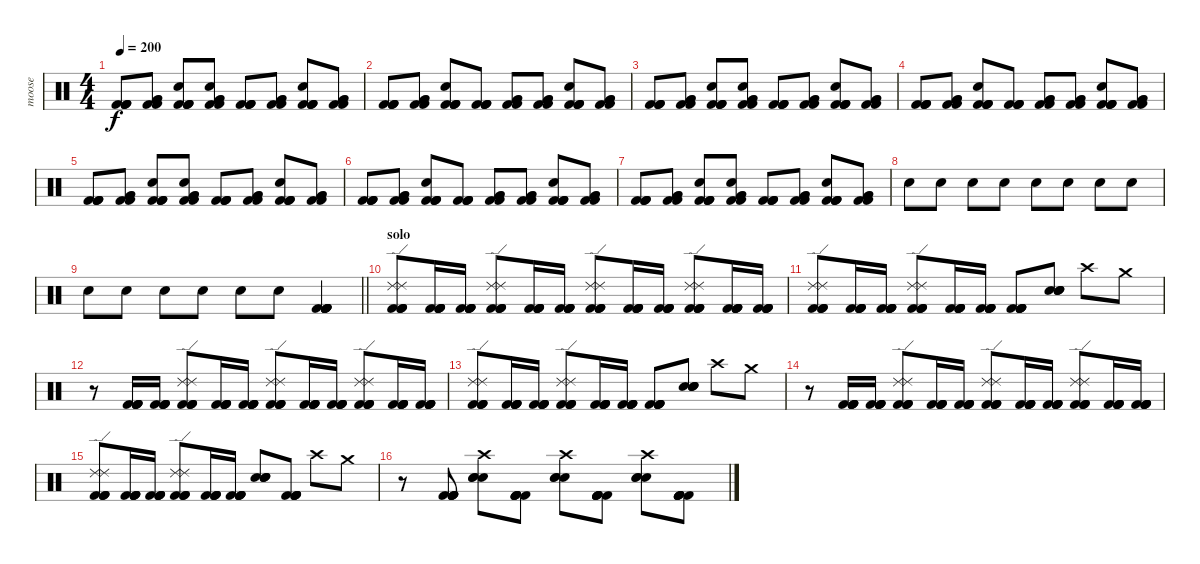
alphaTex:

\track ("moose" "moose") {instrument percussion}
\staff {score}
\articulation defaults
\ts (4 4)
\tempo 200
\clef neutral
\ks c
("Kick (hit) 2" "Kick (hit) 2" "Kick (hit) 2" "Kick (hit) 2").8{dy f} ("Kick (hit) 2" "Kick (hit) 2" "Very Low Tom (hit)" "Very Low Tom (hit)").8 ("Kick (hit) 2" "Kick (hit) 2" "Kick (hit) 2" "Kick (hit) 2" "Hand Clap (hit)").8 ("Kick (hit) 2" "Kick (hit) 2" "Very Low Tom (hit)" "Very Low Tom (hit)" "Hand Clap (hit)").8 ("Kick (hit) 2" "Kick (hit) 2" "Kick (hit) 2" "Kick (hit) 2").8 ("Kick (hit) 2" "Kick (hit) 2" "Very Low Tom (hit)" "Very Low Tom (hit)").8 ("Kick (hit) 2" "Kick (hit) 2" "Kick (hit) 2" "Kick (hit) 2" "Hand Clap (hit)").8 ("Kick (hit) 2" "Kick (hit) 2" "Very Low Tom (hit)" "Very Low Tom (hit)").8 |
("Kick (hit) 2" "Kick (hit) 2" "Kick (hit) 2" "Kick (hit) 2").8 ("Kick (hit) 2" "Kick (hit) 2" "Very Low Tom (hit)" "Very Low Tom (hit)").8 ("Kick (hit) 2" "Kick (hit) 2" "Kick (hit) 2" "Kick (hit) 2" "Hand Clap (hit)").8 ("Kick (hit) 2" "Kick (hit) 2" "Kick (hit) 2" "Kick (hit) 2").8 ("Kick (hit) 2" "Kick (hit) 2" "Very Low Tom (hit)" "Very Low Tom (hit)").8 ("Kick (hit) 2" "Kick (hit) 2" "Very Low Tom (hit)" "Very Low Tom (hit)").8 ("Kick (hit) 2" "Kick (hit) 2" "Kick (hit) 2" "Kick (hit) 2" "Hand Clap (hit)").8 ("Kick (hit) 2" "Kick (hit) 2" "Very Low Tom (hit)" "Very Low Tom (hit)").8 |
("Kick (hit) 2" "Kick (hit) 2" "Kick (hit) 2" "Kick (hit) 2").8 ("Kick (hit) 2" "Kick (hit) 2" "Very Low Tom (hit)" "Very Low Tom (hit)").8 ("Kick (hit) 2" "Kick (hit) 2" "Kick (hit) 2" "Kick (hit) 2" "Hand Clap (hit)").8 ("Kick (hit) 2" "Kick (hit) 2" "Very Low Tom (hit)" "Very Low Tom (hit)" "Hand Clap (hit)").8 ("Kick (hit) 2" "Kick (hit) 2" "Kick (hit) 2" "Kick (hit) 2").8 ("Kick (hit) 2" "Kick (hit) 2" "Very Low Tom (hit)" "Very Low Tom (hit)").8 ("Kick (hit) 2" "Kick (hit) 2" "Kick (hit) 2" "Kick (hit) 2" "Hand Clap (hit)").8 ("Kick (hit) 2" "Kick (hit) 2" "Very Low Tom (hit)" "Very Low Tom (hit)").8 |
("Kick (hit) 2" "Kick (hit) 2" "Kick (hit) 2" "Kick (hit) 2").8 ("Kick (hit) 2" "Kick (hit) 2" "Very Low Tom (hit)" "Very Low Tom (hit)").8 ("Kick (hit) 2" "Kick (hit) 2" "Kick (hit) 2" "Kick (hit) 2" "Hand Clap (hit)").8 ("Kick (hit) 2" "Kick (hit) 2" "Kick (hit) 2" "Kick (hit) 2").8 ("Kick (hit) 2" "Kick (hit) 2" "Very Low Tom (hit)" "Very Low Tom (hit)").8 ("Kick (hit) 2" "Kick (hit) 2" "Very Low Tom (hit)" "Very Low Tom (hit)").8 ("Kick (hit) 2" "Kick (hit) 2" "Kick (hit) 2" "Kick (hit) 2" "Hand Clap (hit)").8 ("Kick (hit) 2" "Kick (hit) 2" "Very Low Tom (hit)" "Very Low Tom (hit)").8 |
("Kick (hit) 2" "Kick (hit) 2" "Kick (hit) 2" "Kick (hit) 2").8 ("Kick (hit) 2" "Kick (hit) 2" "Very Low Tom (hit)" "Very Low Tom (hit)").8 ("Kick (hit) 2" "Kick (hit) 2" "Kick (hit) 2" "Kick (hit) 2" "Hand Clap (hit)").8 ("Kick (hit) 2" "Kick (hit) 2" "Very Low Tom (hit)" "Very Low Tom (hit)" "Hand Clap (hit)").8 ("Kick (hit) 2" "Kick (hit) 2" "Kick (hit) 2" "Kick (hit) 2").8 ("Kick (hit) 2" "Kick (hit) 2" "Very Low Tom (hit)" "Very Low Tom (hit)").8 ("Kick (hit) 2" "Kick (hit) 2" "Kick (hit) 2" "Kick (hit) 2" "Hand Clap (hit)").8 ("Kick (hit) 2" "Kick (hit) 2" "Very Low Tom (hit)" "Very Low Tom (hit)").8 |
("Kick (hit) 2" "Kick (hit) 2" "Kick (hit) 2" "Kick (hit) 2").8 ("Kick (hit) 2" "Kick (hit) 2" "Very Low Tom (hit)" "Very Low Tom (hit)").8 ("Kick (hit) 2" "Kick (hit) 2" "Kick (hit) 2" "Kick (hit) 2" "Hand Clap (hit)").8 ("Kick (hit) 2" "Kick (hit) 2" "Kick (hit) 2" "Kick (hit) 2").8 ("Kick (hit) 2" "Kick (hit) 2" "Very Low Tom (hit)" "Very Low Tom (hit)").8 ("Kick (hit) 2" "Kick (hit) 2" "Very Low Tom (hit)" "Very Low Tom (hit)").8 ("Kick (hit) 2" "Kick (hit) 2" "Kick (hit) 2" "Kick (hit) 2" "Hand Clap (hit)").8 ("Kick (hit) 2" "Kick (hit) 2" "Very Low Tom (hit)" "Very Low Tom (hit)").8 |
("Kick (hit) 2" "Kick (hit) 2" "Kick (hit) 2" "Kick (hit) 2").8 ("Kick (hit) 2" "Kick (hit) 2" "Very Low Tom (hit)" "Very Low Tom (hit)").8 ("Kick (hit) 2" "Kick (hit) 2" "Kick (hit) 2" "Kick (hit) 2" "Hand Clap (hit)").8 ("Kick (hit) 2" "Kick (hit) 2" "Very Low Tom (hit)" "Very Low Tom (hit)" "Hand Clap (hit)").8 ("Kick (hit) 2" "Kick (hit) 2" "Kick (hit) 2" "Kick (hit) 2").8 ("Kick (hit) 2" "Kick (hit) 2" "Very Low Tom (hit)" "Very Low Tom (hit)").8 ("Kick (hit) 2" "Kick (hit) 2" "Kick (hit) 2" "Kick (hit) 2" "Hand Clap (hit)").8 ("Kick (hit) 2" "Kick (hit) 2" "Very Low Tom (hit)" "Very Low Tom (hit)").8 |
"Electric Snare (hit)".8 "Electric Snare (hit)".8 "Electric Snare (hit)".8 "Electric Snare (hit)".8 "Electric Snare (hit)".8 "Electric Snare (hit)".8 "Electric Snare (hit)".8 "Electric Snare (hit)".8 |
\barLineRight lightlight "Electric Snare (hit)".8 "Electric Snare (hit)".8 "Electric Snare (hit)".8 "Electric Snare (hit)".8 "Electric Snare (hit)".8 "Electric Snare (hit)".8
("Kick (hit) 2" "Kick (hit) 2" "Kick (hit) 2" "Kick (hit) 2" "Kick (hit) 2" "Kick (hit) 2").4 |
\section ("" "solo")
("Kick (hit) 2" "Kick (hit) 2" "Kick (hit) 2" "Kick (hit) 2" "Ride (edge) 2" "Ride (edge) 2").8 ("Kick (hit) 2" "Kick (hit) 2" "Kick (hit) 2" "Kick (hit) 2" "Kick (hit) 2").16 ("Kick (hit) 2" "Kick (hit) 2" "Kick (hit) 2" "Kick (hit) 2" "Kick (hit) 2").16 ("Kick (hit) 2" "Kick (hit) 2" "Kick (hit) 2" "Kick (hit) 2" "Ride (edge) 2" "Ride (edge) 2").8 ("Kick (hit) 2" "Kick (hit) 2" "Kick (hit) 2" "Kick (hit) 2" "Kick (hit) 2").16 ("Kick (hit) 2" "Kick (hit) 2" "Kick (hit) 2" "Kick (hit) 2" "Kick (hit) 2").16 ("Kick (hit) 2" "Kick (hit) 2" "Kick (hit) 2" "Kick (hit) 2" "Ride (edge) 2" "Ride (edge) 2").8 ("Kick (hit) 2" "Kick (hit) 2" "Kick (hit) 2" "Kick (hit) 2" "Kick (hit) 2").16 ("Kick (hit) 2" "Kick (hit) 2" "Kick (hit) 2" "Kick (hit) 2" "Kick (hit) 2").16 ("Kick (hit) 2" "Kick (hit) 2" "Kick (hit) 2" "Kick (hit) 2" "Ride (edge) 2" "Ride (edge) 2").8 ("Kick (hit) 2" "Kick (hit) 2" "Kick (hit) 2" "Kick (hit) 2" "Kick (hit) 2").16 ("Kick (hit) 2" "Kick (hit) 2" "Kick (hit) 2" "Kick (hit) 2" "Kick (hit) 2").16 |
("Kick (hit) 2" "Kick (hit) 2" "Kick (hit) 2" "Kick (hit) 2" "Ride (edge) 2" "Ride (edge) 2").8 ("Kick (hit) 2" "Kick (hit) 2" "Kick (hit) 2" "Kick (hit) 2" "Kick (hit) 2").16 ("Kick (hit) 2" "Kick (hit) 2" "Kick (hit) 2" "Kick (hit) 2" "Kick (hit) 2").16 ("Kick (hit) 2" "Kick (hit) 2" "Kick (hit) 2" "Kick (hit) 2" "Ride (edge) 2" "Ride (edge) 2").8 ("Kick (hit) 2" "Kick (hit) 2" "Kick (hit) 2" "Kick (hit) 2" "Kick (hit) 2").16 ("Kick (hit) 2" "Kick (hit) 2" "Kick (hit) 2" "Kick (hit) 2" "Kick (hit) 2").16 ("Kick (hit) 2" "Kick (hit) 2" "Kick (hit) 2" "Kick (hit) 2" "Kick (hit) 2").8 ("Electric Snare (hit)" "Electric Snare (hit)" "Electric Snare (hit)" "Electric Snare (hit)").8 "Crash high (hit)".8 "Crash medium (hit)".8 |
r.8 ("Kick (hit) 2" "Kick (hit) 2" "Kick (hit) 2" "Kick (hit) 2" "Kick (hit) 2").16 ("Kick (hit) 2" "Kick (hit) 2" "Kick (hit) 2" "Kick (hit) 2" "Kick (hit) 2").16 ("Kick (hit) 2" "Kick (hit) 2" "Kick (hit) 2" "Kick (hit) 2" "Ride (edge) 2" "Ride (edge) 2").8 ("Kick (hit) 2" "Kick (hit) 2" "Kick (hit) 2" "Kick (hit) 2" "Kick (hit) 2").16 ("Kick (hit) 2" "Kick (hit) 2" "Kick (hit) 2" "Kick (hit) 2" "Kick (hit) 2").16 ("Kick (hit) 2" "Kick (hit) 2" "Kick (hit) 2" "Kick (hit) 2" "Ride (edge) 2" "Ride (edge) 2").8 ("Kick (hit) 2" "Kick (hit) 2" "Kick (hit) 2" "Kick (hit) 2" "Kick (hit) 2").16 ("Kick (hit) 2" "Kick (hit) 2" "Kick (hit) 2" "Kick (hit) 2" "Kick (hit) 2").16 ("Kick (hit) 2" "Kick (hit) 2" "Kick (hit) 2" "Kick (hit) 2" "Ride (edge) 2" "Ride (edge) 2").8 ("Kick (hit) 2" "Kick (hit) 2" "Kick (hit) 2" "Kick (hit) 2" "Kick (hit) 2").16 ("Kick (hit) 2" "Kick (hit) 2" "Kick (hit) 2" "Kick (hit) 2" "Kick (hit) 2").16 |
("Kick (hit) 2" "Kick (hit) 2" "Kick (hit) 2" "Kick (hit) 2" "Ride (edge) 2" "Ride (edge) 2").8 ("Kick (hit) 2" "Kick (hit) 2" "Kick (hit) 2" "Kick (hit) 2" "Kick (hit) 2").16 ("Kick (hit) 2" "Kick (hit) 2" "Kick (hit) 2" "Kick (hit) 2" "Kick (hit) 2").16 ("Kick (hit) 2" "Kick (hit) 2" "Kick (hit) 2" "Kick (hit) 2" "Ride (edge) 2" "Ride (edge) 2").8 ("Kick (hit) 2" "Kick (hit) 2" "Kick (hit) 2" "Kick (hit) 2" "Kick (hit) 2").16 ("Kick (hit) 2" "Kick (hit) 2" "Kick (hit) 2" "Kick (hit) 2" "Kick (hit) 2").16 ("Kick (hit) 2" "Kick (hit) 2" "Kick (hit) 2" "Kick (hit) 2" "Kick (hit) 2").8 ("Electric Snare (hit)" "Electric Snare (hit)" "Electric Snare (hit)" "Electric Snare (hit)").8 "Crash high (hit)".8 "Crash medium (hit)".8 |
r.8 ("Kick (hit) 2" "Kick (hit) 2" "Kick (hit) 2" "Kick (hit) 2" "Kick (hit) 2").16 ("Kick (hit) 2" "Kick (hit) 2" "Kick (hit) 2" "Kick (hit) 2" "Kick (hit) 2").16 ("Kick (hit) 2" "Kick (hit) 2" "Kick (hit) 2" "Kick (hit) 2" "Ride (edge) 2" "Ride (edge) 2").8 ("Kick (hit) 2" "Kick (hit) 2" "Kick (hit) 2" "Kick (hit) 2" "Kick (hit) 2").16 ("Kick (hit) 2" "Kick (hit) 2" "Kick (hit) 2" "Kick (hit) 2" "Kick (hit) 2").16 ("Kick (hit) 2" "Kick (hit) 2" "Kick (hit) 2" "Kick (hit) 2" "Ride (edge) 2" "Ride (edge) 2").8 ("Kick (hit) 2" "Kick (hit) 2" "Kick (hit) 2" "Kick (hit) 2" "Kick (hit) 2").16 ("Kick (hit) 2" "Kick (hit) 2" "Kick (hit) 2" "Kick (hit) 2" "Kick (hit) 2").16 ("Kick (hit) 2" "Kick (hit) 2" "Kick (hit) 2" "Kick (hit) 2" "Ride (edge) 2" "Ride (edge) 2").8 ("Kick (hit) 2" "Kick (hit) 2" "Kick (hit) 2" "Kick (hit) 2" "Kick (hit) 2").16 ("Kick (hit) 2" "Kick (hit) 2" "Kick (hit) 2" "Kick (hit) 2" "Kick (hit) 2").16 |
("Kick (hit) 2" "Kick (hit) 2" "Kick (hit) 2" "Kick (hit) 2" "Ride (edge) 2" "Ride (edge) 2").8 ("Kick (hit) 2" "Kick (hit) 2" "Kick (hit) 2" "Kick (hit) 2" "Kick (hit) 2").16 ("Kick (hit) 2" "Kick (hit) 2" "Kick (hit) 2" "Kick (hit) 2" "Kick (hit) 2").16 ("Kick (hit) 2" "Kick (hit) 2" "Kick (hit) 2" "Kick (hit) 2" "Ride (edge) 2" "Ride (edge) 2").8 ("Kick (hit) 2" "Kick (hit) 2" "Kick (hit) 2" "Kick (hit) 2" "Kick (hit) 2").16 ("Kick (hit) 2" "Kick (hit) 2" "Kick (hit) 2" "Kick (hit) 2" "Kick (hit) 2").16 ("Electric Snare (hit)" "Electric Snare (hit)" "Electric Snare (hit)" "Electric Snare (hit)").8 ("Kick (hit) 2" "Kick (hit) 2" "Kick (hit) 2" "Kick (hit) 2" "Kick (hit) 2").8 "Crash high (hit)".8 "Crash medium (hit)".8 |
r.8 ("Kick (hit) 2" "Kick (hit) 2" "Kick (hit) 2" "Kick (hit) 2" "Kick (hit) 2").8 ("Electric Snare (hit)" "Electric Snare (hit)" "Electric Snare (hit)" "Crash high (hit)").8 ("Kick (hit) 2" "Kick (hit) 2" "Kick (hit) 2" "Kick (hit) 2" "Kick (hit) 2").8 ("Electric Snare (hit)" "Electric Snare (hit)" "Electric Snare (hit)" "Crash high (hit)").8 ("Kick (hit) 2" "Kick (hit) 2" "Kick (hit) 2" "Kick (hit) 2" "Kick (hit) 2").8 ("Electric Snare (hit)" "Electric Snare (hit)" "Electric Snare (hit)" "Crash high (hit)").8 ("Kick (hit) 2" "Kick (hit) 2" "Kick (hit) 2" "Kick (hit) 2" "Kick (hit) 2").8
